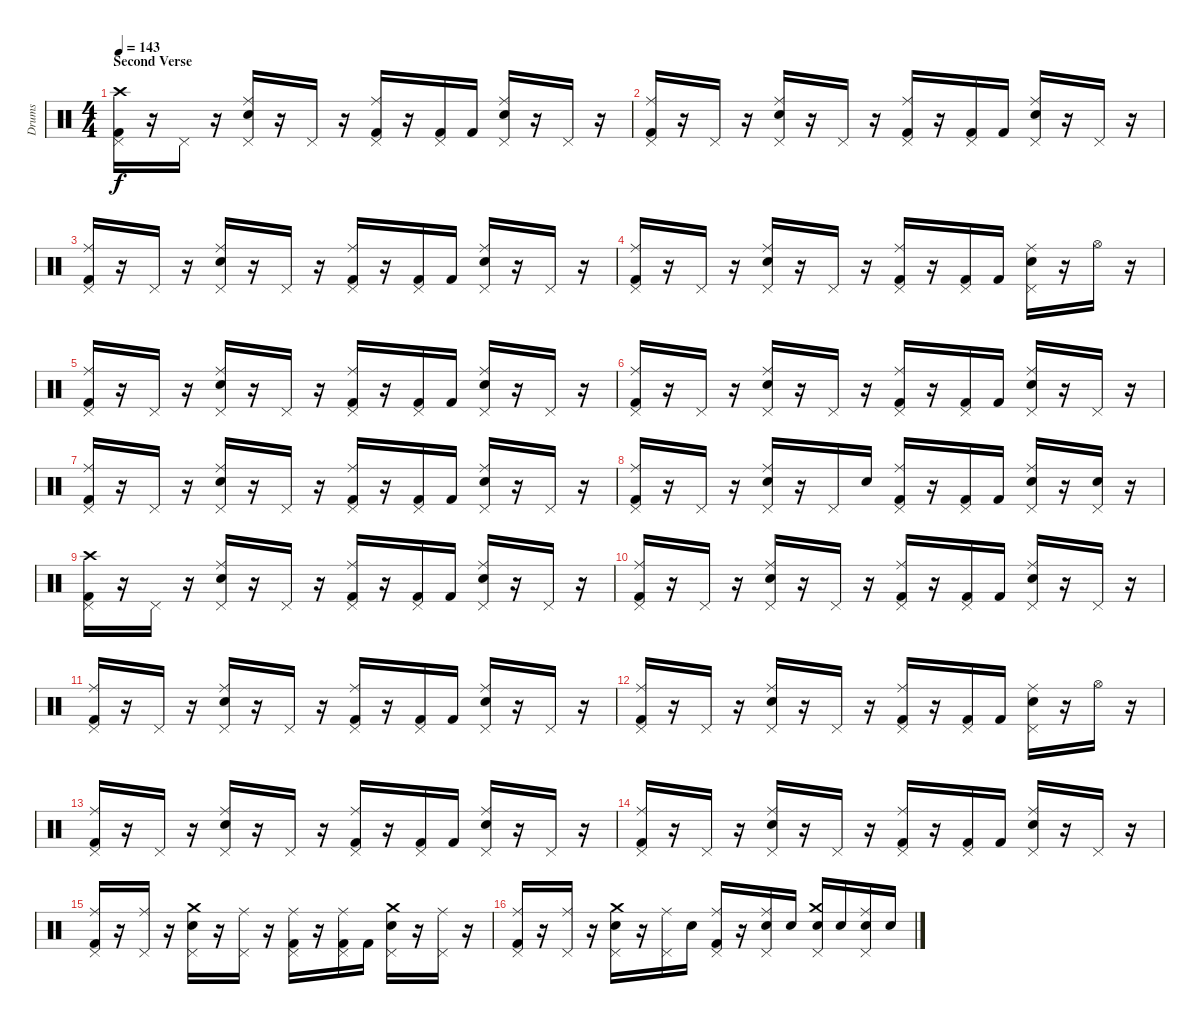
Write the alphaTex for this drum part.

\track ("Drums" "Drums") {instrument percussion}
\staff {score}
\articulation defaults
\ts (4 4)
\section ("" "Second Verse")
\tempo 143
\clef neutral
\ks c
("Crash high (hit)" "Kick (hit) 2" "Pedal Hi-Hat (hit)").16{dy f} r.16 "Pedal Hi-Hat (hit)".16 r.16 ("Ride (middle)" "Snare (hit) 2" "Pedal Hi-Hat (hit)").16 r.16 "Pedal Hi-Hat (hit)".16 r.16 ("Ride (middle)" "Kick (hit) 2" "Pedal Hi-Hat (hit)").16 r.16 ("Kick (hit) 2" "Pedal Hi-Hat (hit)").16 "Kick (hit) 2".16 ("Ride (middle)" "Snare (hit) 2" "Pedal Hi-Hat (hit)").16 r.16 "Pedal Hi-Hat (hit)".16 r.16 |
("Ride (middle)" "Kick (hit) 2" "Pedal Hi-Hat (hit)").16 r.16 "Pedal Hi-Hat (hit)".16 r.16 ("Ride (middle)" "Snare (hit) 2" "Pedal Hi-Hat (hit)").16 r.16 "Pedal Hi-Hat (hit)".16 r.16 ("Ride (middle)" "Kick (hit) 2" "Pedal Hi-Hat (hit)").16 r.16 ("Kick (hit) 2" "Pedal Hi-Hat (hit)").16 "Kick (hit) 2".16 ("Ride (middle)" "Snare (hit) 2" "Pedal Hi-Hat (hit)").16 r.16 "Pedal Hi-Hat (hit)".16 r.16 |
("Ride (middle)" "Kick (hit) 2" "Pedal Hi-Hat (hit)").16 r.16 "Pedal Hi-Hat (hit)".16 r.16 ("Ride (middle)" "Snare (hit) 2" "Pedal Hi-Hat (hit)").16 r.16 "Pedal Hi-Hat (hit)".16 r.16 ("Ride (middle)" "Kick (hit) 2" "Pedal Hi-Hat (hit)").16 r.16 ("Kick (hit) 2" "Pedal Hi-Hat (hit)").16 "Kick (hit) 2".16 ("Ride (middle)" "Snare (hit) 2" "Pedal Hi-Hat (hit)").16 r.16 "Pedal Hi-Hat (hit)".16 r.16 |
("Ride (middle)" "Kick (hit) 2" "Pedal Hi-Hat (hit)").16 r.16 "Pedal Hi-Hat (hit)".16 r.16 ("Ride (middle)" "Snare (hit) 2" "Pedal Hi-Hat (hit)").16 r.16 "Pedal Hi-Hat (hit)".16 r.16 ("Ride (middle)" "Kick (hit) 2" "Pedal Hi-Hat (hit)").16 r.16 ("Kick (hit) 2" "Pedal Hi-Hat (hit)").16 "Kick (hit) 2".16 ("Ride (middle)" "Snare (hit) 2" "Pedal Hi-Hat (hit)").16 r.16 "Hi-Hat (open)".16 r.16 |
("Ride (middle)" "Kick (hit) 2" "Pedal Hi-Hat (hit)").16 r.16 "Pedal Hi-Hat (hit)".16 r.16 ("Ride (middle)" "Snare (hit) 2" "Pedal Hi-Hat (hit)").16 r.16 "Pedal Hi-Hat (hit)".16 r.16 ("Ride (middle)" "Kick (hit) 2" "Pedal Hi-Hat (hit)").16 r.16 ("Kick (hit) 2" "Pedal Hi-Hat (hit)").16 "Kick (hit) 2".16 ("Ride (middle)" "Snare (hit) 2" "Pedal Hi-Hat (hit)").16 r.16 "Pedal Hi-Hat (hit)".16 r.16 |
("Ride (middle)" "Kick (hit) 2" "Pedal Hi-Hat (hit)").16 r.16 "Pedal Hi-Hat (hit)".16 r.16 ("Ride (middle)" "Snare (hit) 2" "Pedal Hi-Hat (hit)").16 r.16 "Pedal Hi-Hat (hit)".16 r.16 ("Ride (middle)" "Kick (hit) 2" "Pedal Hi-Hat (hit)").16 r.16 ("Kick (hit) 2" "Pedal Hi-Hat (hit)").16 "Kick (hit) 2".16 ("Ride (middle)" "Snare (hit) 2" "Pedal Hi-Hat (hit)").16 r.16 "Pedal Hi-Hat (hit)".16 r.16 |
("Ride (middle)" "Kick (hit) 2" "Pedal Hi-Hat (hit)").16 r.16 "Pedal Hi-Hat (hit)".16 r.16 ("Ride (middle)" "Snare (hit) 2" "Pedal Hi-Hat (hit)").16 r.16 "Pedal Hi-Hat (hit)".16 r.16 ("Ride (middle)" "Kick (hit) 2" "Pedal Hi-Hat (hit)").16 r.16 ("Kick (hit) 2" "Pedal Hi-Hat (hit)").16 "Kick (hit) 2".16 ("Ride (middle)" "Snare (hit) 2" "Pedal Hi-Hat (hit)").16 r.16 "Pedal Hi-Hat (hit)".16 r.16 |
("Ride (middle)" "Kick (hit) 2" "Pedal Hi-Hat (hit)").16 r.16 "Pedal Hi-Hat (hit)".16 r.16 ("Ride (middle)" "Snare (hit) 2" "Pedal Hi-Hat (hit)").16 r.16 "Pedal Hi-Hat (hit)".16 "Snare (hit) 2".16 ("Ride (middle)" "Kick (hit) 2" "Pedal Hi-Hat (hit)").16 r.16 ("Kick (hit) 2" "Pedal Hi-Hat (hit)").16 "Kick (hit) 2".16 ("Ride (middle)" "Snare (hit) 2" "Pedal Hi-Hat (hit)").16 r.16 ("Snare (hit) 2" "Pedal Hi-Hat (hit)").16 r.16 |
("Crash high (hit)" "Kick (hit) 2" "Pedal Hi-Hat (hit)").16 r.16 "Pedal Hi-Hat (hit)".16 r.16 ("Ride (middle)" "Snare (hit) 2" "Pedal Hi-Hat (hit)").16 r.16 "Pedal Hi-Hat (hit)".16 r.16 ("Ride (middle)" "Kick (hit) 2" "Pedal Hi-Hat (hit)").16 r.16 ("Kick (hit) 2" "Pedal Hi-Hat (hit)").16 "Kick (hit) 2".16 ("Ride (middle)" "Snare (hit) 2" "Pedal Hi-Hat (hit)").16 r.16 "Pedal Hi-Hat (hit)".16 r.16 |
("Ride (middle)" "Kick (hit) 2" "Pedal Hi-Hat (hit)").16 r.16 "Pedal Hi-Hat (hit)".16 r.16 ("Ride (middle)" "Snare (hit) 2" "Pedal Hi-Hat (hit)").16 r.16 "Pedal Hi-Hat (hit)".16 r.16 ("Ride (middle)" "Kick (hit) 2" "Pedal Hi-Hat (hit)").16 r.16 ("Kick (hit) 2" "Pedal Hi-Hat (hit)").16 "Kick (hit) 2".16 ("Ride (middle)" "Snare (hit) 2" "Pedal Hi-Hat (hit)").16 r.16 "Pedal Hi-Hat (hit)".16 r.16 |
("Ride (middle)" "Kick (hit) 2" "Pedal Hi-Hat (hit)").16 r.16 "Pedal Hi-Hat (hit)".16 r.16 ("Ride (middle)" "Snare (hit) 2" "Pedal Hi-Hat (hit)").16 r.16 "Pedal Hi-Hat (hit)".16 r.16 ("Ride (middle)" "Kick (hit) 2" "Pedal Hi-Hat (hit)").16 r.16 ("Kick (hit) 2" "Pedal Hi-Hat (hit)").16 "Kick (hit) 2".16 ("Ride (middle)" "Snare (hit) 2" "Pedal Hi-Hat (hit)").16 r.16 "Pedal Hi-Hat (hit)".16 r.16 |
("Ride (middle)" "Kick (hit) 2" "Pedal Hi-Hat (hit)").16 r.16 "Pedal Hi-Hat (hit)".16 r.16 ("Ride (middle)" "Snare (hit) 2" "Pedal Hi-Hat (hit)").16 r.16 "Pedal Hi-Hat (hit)".16 r.16 ("Ride (middle)" "Kick (hit) 2" "Pedal Hi-Hat (hit)").16 r.16 ("Kick (hit) 2" "Pedal Hi-Hat (hit)").16 "Kick (hit) 2".16 ("Ride (middle)" "Snare (hit) 2" "Pedal Hi-Hat (hit)").16 r.16 "Hi-Hat (open)".16 r.16 |
("Ride (middle)" "Kick (hit) 2" "Pedal Hi-Hat (hit)").16 r.16 "Pedal Hi-Hat (hit)".16 r.16 ("Ride (middle)" "Snare (hit) 2" "Pedal Hi-Hat (hit)").16 r.16 "Pedal Hi-Hat (hit)".16 r.16 ("Ride (middle)" "Kick (hit) 2" "Pedal Hi-Hat (hit)").16 r.16 ("Kick (hit) 2" "Pedal Hi-Hat (hit)").16 "Kick (hit) 2".16 ("Ride (middle)" "Snare (hit) 2" "Pedal Hi-Hat (hit)").16 r.16 "Pedal Hi-Hat (hit)".16 r.16 |
("Ride (middle)" "Kick (hit) 2" "Pedal Hi-Hat (hit)").16 r.16 "Pedal Hi-Hat (hit)".16 r.16 ("Ride (middle)" "Snare (hit) 2" "Pedal Hi-Hat (hit)").16 r.16 "Pedal Hi-Hat (hit)".16 r.16 ("Ride (middle)" "Kick (hit) 2" "Pedal Hi-Hat (hit)").16 r.16 ("Kick (hit) 2" "Pedal Hi-Hat (hit)").16 "Kick (hit) 2".16 ("Ride (middle)" "Snare (hit) 2" "Pedal Hi-Hat (hit)").16 r.16 "Pedal Hi-Hat (hit)".16 r.16 |
("Ride (middle)" "Kick (hit) 2" "Pedal Hi-Hat (hit)").16 r.16 ("Ride (middle)" "Pedal Hi-Hat (hit)").16 r.16 ("Crash medium (hit)" "Snare (hit) 2" "Pedal Hi-Hat (hit)").16 r.16 ("Ride (middle)" "Pedal Hi-Hat (hit)").16 r.16 ("Ride (middle)" "Kick (hit) 2" "Pedal Hi-Hat (hit)").16 r.16 ("Ride (middle)" "Kick (hit) 2" "Pedal Hi-Hat (hit)").16 "Kick (hit) 2".16 ("Crash medium (hit)" "Snare (hit) 2" "Pedal Hi-Hat (hit)").16 r.16 ("Ride (middle)" "Pedal Hi-Hat (hit)").16 r.16 |
("Ride (middle)" "Kick (hit) 2" "Pedal Hi-Hat (hit)").16 r.16 ("Ride (middle)" "Pedal Hi-Hat (hit)").16 r.16 ("Crash medium (hit)" "Snare (hit) 2" "Pedal Hi-Hat (hit)").16 r.16 ("Ride (middle)" "Pedal Hi-Hat (hit)").16 "Snare (hit) 2".16 ("Ride (middle)" "Kick (hit) 2" "Pedal Hi-Hat (hit)").16 r.16 ("Ride (middle)" "Electric Snare (hit)" "Pedal Hi-Hat (hit)").16 "Electric Snare (hit)".16 ("Crash medium (hit)" "Electric Snare (hit)" "Pedal Hi-Hat (hit)").16 "Electric Snare (hit)".16 ("Ride (middle)" "Electric Snare (hit)" "Pedal Hi-Hat (hit)").16 "Electric Snare (hit)".16
